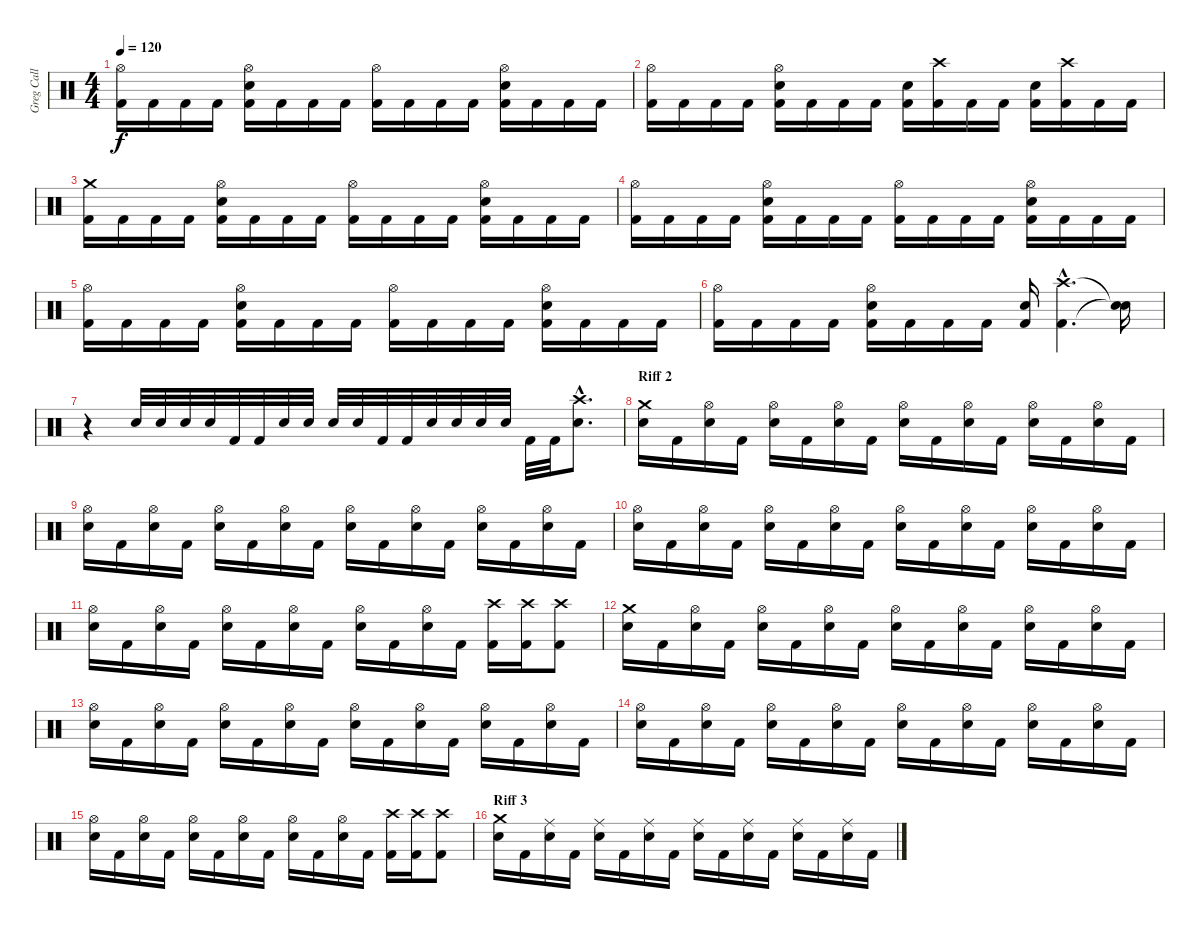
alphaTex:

\track ("Greg Call (Drums)" "Greg Call ") {instrument percussion}
\staff {score}
\articulation defaults
\ts (4 4)
\tempo 120
\clef neutral
\ks c
("Hi-Hat (open)" "Kick (hit) 2").16{dy f} "Kick (hit) 2".16 "Kick (hit) 2".16 "Kick (hit) 2".16 ("Hi-Hat (open)" "Snare (hit) 2" "Kick (hit) 2").16 "Kick (hit) 2".16 "Kick (hit) 2".16 "Kick (hit) 2".16 ("Hi-Hat (open)" "Kick (hit) 2").16 "Kick (hit) 2".16 "Kick (hit) 2".16 "Kick (hit) 2".16 ("Hi-Hat (open)" "Snare (hit) 2" "Kick (hit) 2").16 "Kick (hit) 2".16 "Kick (hit) 2".16 "Kick (hit) 2".16 |
("Hi-Hat (open)" "Kick (hit) 2").16 "Kick (hit) 2".16 "Kick (hit) 2".16 "Kick (hit) 2".16 ("Hi-Hat (open)" "Snare (hit) 2" "Kick (hit) 2").16 "Kick (hit) 2".16 "Kick (hit) 2".16 "Kick (hit) 2".16 ("Snare (hit) 2" "Kick (hit) 2").16 ("Crash high (hit)" "Kick (hit) 2").16 "Kick (hit) 2".16 "Kick (hit) 2".16 ("Snare (hit) 2" "Kick (hit) 2").16 ("Crash high (hit)" "Kick (hit) 2").16 "Kick (hit) 2".16 "Kick (hit) 2".16 |
("Crash medium (hit)" "Kick (hit) 2").16 "Kick (hit) 2".16 "Kick (hit) 2".16 "Kick (hit) 2".16 ("Hi-Hat (open)" "Snare (hit) 2" "Kick (hit) 2").16 "Kick (hit) 2".16 "Kick (hit) 2".16 "Kick (hit) 2".16 ("Hi-Hat (open)" "Kick (hit) 2").16 "Kick (hit) 2".16 "Kick (hit) 2".16 "Kick (hit) 2".16 ("Hi-Hat (open)" "Snare (hit) 2" "Kick (hit) 2").16 "Kick (hit) 2".16 "Kick (hit) 2".16 "Kick (hit) 2".16 |
("Hi-Hat (open)" "Kick (hit) 2").16 "Kick (hit) 2".16 "Kick (hit) 2".16 "Kick (hit) 2".16 ("Hi-Hat (open)" "Snare (hit) 2" "Kick (hit) 2").16 "Kick (hit) 2".16 "Kick (hit) 2".16 "Kick (hit) 2".16 ("Hi-Hat (open)" "Kick (hit) 2").16 "Kick (hit) 2".16 "Kick (hit) 2".16 "Kick (hit) 2".16 ("Hi-Hat (open)" "Snare (hit) 2" "Kick (hit) 2").16 "Kick (hit) 2".16 "Kick (hit) 2".16 "Kick (hit) 2".16 |
("Hi-Hat (open)" "Kick (hit) 2").16 "Kick (hit) 2".16 "Kick (hit) 2".16 "Kick (hit) 2".16 ("Hi-Hat (open)" "Snare (hit) 2" "Kick (hit) 2").16 "Kick (hit) 2".16 "Kick (hit) 2".16 "Kick (hit) 2".16 ("Hi-Hat (open)" "Kick (hit) 2").16 "Kick (hit) 2".16 "Kick (hit) 2".16 "Kick (hit) 2".16 ("Hi-Hat (open)" "Snare (hit) 2" "Kick (hit) 2").16 "Kick (hit) 2".16 "Kick (hit) 2".16 "Kick (hit) 2".16 |
("Hi-Hat (open)" "Kick (hit) 2").16 "Kick (hit) 2".16 "Kick (hit) 2".16 "Kick (hit) 2".16 ("Hi-Hat (open)" "Snare (hit) 2" "Kick (hit) 2").16 "Kick (hit) 2".16 "Kick (hit) 2".16 "Kick (hit) 2".16 ("Snare (hit) 2" "Kick (hit) 2").16 ("Crash high (hit)"{hac} "Kick (hit) 2"{hac}).4{d} ("Snare (hit)"{t} "Snare (hit)"{t}).16 |
r.4 "Snare (hit) 2".32 "Snare (hit) 2".32 "Snare (hit) 2".32 "Snare (hit) 2".32 "Kick (hit) 2".32 "Kick (hit) 2".32 "Snare (hit) 2".32 "Snare (hit) 2".32 "Snare (hit) 2".32 "Snare (hit) 2".32 "Kick (hit) 2".32 "Kick (hit) 2".32 "Snare (hit) 2".32 "Snare (hit) 2".32 "Snare (hit) 2".32 "Snare (hit) 2".32 "Kick (hit) 2".32 "Kick (hit) 2".32 ("Crash high (hit)"{hac} "Snare (hit) 2"{hac}).8{d} |
\section ("" "Riff 2")
("Crash medium (hit)" "Snare (hit) 2").16 "Kick (hit) 2".16 ("Hi-Hat (open)" "Snare (hit) 2").16 "Kick (hit) 2".16 ("Hi-Hat (open)" "Snare (hit) 2").16 "Kick (hit) 2".16 ("Hi-Hat (open)" "Snare (hit) 2").16 "Kick (hit) 2".16 ("Hi-Hat (open)" "Snare (hit) 2").16 "Kick (hit) 2".16 ("Hi-Hat (open)" "Snare (hit) 2").16 "Kick (hit) 2".16 ("Hi-Hat (open)" "Snare (hit) 2").16 "Kick (hit) 2".16 ("Hi-Hat (open)" "Snare (hit) 2").16 "Kick (hit) 2".16 |
("Hi-Hat (open)" "Snare (hit) 2").16 "Kick (hit) 2".16 ("Hi-Hat (open)" "Snare (hit) 2").16 "Kick (hit) 2".16 ("Hi-Hat (open)" "Snare (hit) 2").16 "Kick (hit) 2".16 ("Hi-Hat (open)" "Snare (hit) 2").16 "Kick (hit) 2".16 ("Hi-Hat (open)" "Snare (hit) 2").16 "Kick (hit) 2".16 ("Hi-Hat (open)" "Snare (hit) 2").16 "Kick (hit) 2".16 ("Hi-Hat (open)" "Snare (hit) 2").16 "Kick (hit) 2".16 ("Hi-Hat (open)" "Snare (hit) 2").16 "Kick (hit) 2".16 |
("Hi-Hat (open)" "Snare (hit) 2").16 "Kick (hit) 2".16 ("Hi-Hat (open)" "Snare (hit) 2").16 "Kick (hit) 2".16 ("Hi-Hat (open)" "Snare (hit) 2").16 "Kick (hit) 2".16 ("Hi-Hat (open)" "Snare (hit) 2").16 "Kick (hit) 2".16 ("Hi-Hat (open)" "Snare (hit) 2").16 "Kick (hit) 2".16 ("Hi-Hat (open)" "Snare (hit) 2").16 "Kick (hit) 2".16 ("Hi-Hat (open)" "Snare (hit) 2").16 "Kick (hit) 2".16 ("Hi-Hat (open)" "Snare (hit) 2").16 "Kick (hit) 2".16 |
("Hi-Hat (open)" "Snare (hit) 2").16 "Kick (hit) 2".16 ("Hi-Hat (open)" "Snare (hit) 2").16 "Kick (hit) 2".16 ("Hi-Hat (open)" "Snare (hit) 2").16 "Kick (hit) 2".16 ("Hi-Hat (open)" "Snare (hit) 2").16 "Kick (hit) 2".16 ("Hi-Hat (open)" "Snare (hit) 2").16 "Kick (hit) 2".16 ("Snare (hit) 2" "Hi-Hat (open)").16 "Kick (hit) 2".16 ("Crash high (hit)" "Kick (hit) 2").16 ("Crash high (hit)" "Kick (hit) 2").16 ("Crash high (hit)" "Kick (hit) 2").8 |
("Crash medium (hit)" "Snare (hit) 2").16 "Kick (hit) 2".16 ("Hi-Hat (open)" "Snare (hit) 2").16 "Kick (hit) 2".16 ("Hi-Hat (open)" "Snare (hit) 2").16 "Kick (hit) 2".16 ("Hi-Hat (open)" "Snare (hit) 2").16 "Kick (hit) 2".16 ("Hi-Hat (open)" "Snare (hit) 2").16 "Kick (hit) 2".16 ("Hi-Hat (open)" "Snare (hit) 2").16 "Kick (hit) 2".16 ("Hi-Hat (open)" "Snare (hit) 2").16 "Kick (hit) 2".16 ("Hi-Hat (open)" "Snare (hit) 2").16 "Kick (hit) 2".16 |
("Hi-Hat (open)" "Snare (hit) 2").16 "Kick (hit) 2".16 ("Hi-Hat (open)" "Snare (hit) 2").16 "Kick (hit) 2".16 ("Hi-Hat (open)" "Snare (hit) 2").16 "Kick (hit) 2".16 ("Hi-Hat (open)" "Snare (hit) 2").16 "Kick (hit) 2".16 ("Hi-Hat (open)" "Snare (hit) 2").16 "Kick (hit) 2".16 ("Hi-Hat (open)" "Snare (hit) 2").16 "Kick (hit) 2".16 ("Hi-Hat (open)" "Snare (hit) 2").16 "Kick (hit) 2".16 ("Hi-Hat (open)" "Snare (hit) 2").16 "Kick (hit) 2".16 |
("Hi-Hat (open)" "Snare (hit) 2").16 "Kick (hit) 2".16 ("Hi-Hat (open)" "Snare (hit) 2").16 "Kick (hit) 2".16 ("Hi-Hat (open)" "Snare (hit) 2").16 "Kick (hit) 2".16 ("Hi-Hat (open)" "Snare (hit) 2").16 "Kick (hit) 2".16 ("Hi-Hat (open)" "Snare (hit) 2").16 "Kick (hit) 2".16 ("Hi-Hat (open)" "Snare (hit) 2").16 "Kick (hit) 2".16 ("Hi-Hat (open)" "Snare (hit) 2").16 "Kick (hit) 2".16 ("Hi-Hat (open)" "Snare (hit) 2").16 "Kick (hit) 2".16 |
("Hi-Hat (open)" "Snare (hit) 2").16 "Kick (hit) 2".16 ("Hi-Hat (open)" "Snare (hit) 2").16 "Kick (hit) 2".16 ("Hi-Hat (open)" "Snare (hit) 2").16 "Kick (hit) 2".16 ("Hi-Hat (open)" "Snare (hit) 2").16 "Kick (hit) 2".16 ("Hi-Hat (open)" "Snare (hit) 2").16 "Kick (hit) 2".16 ("Snare (hit) 2" "Hi-Hat (open)").16 "Kick (hit) 2".16 ("Crash high (hit)" "Kick (hit) 2").16 ("Crash high (hit)" "Kick (hit) 2").16 ("Crash high (hit)" "Kick (hit) 2").8 |
\section ("" "Riff 3")
("Crash medium (hit)" "Snare (hit) 2").16 "Kick (hit) 2".16 ("Ride (middle)" "Snare (hit) 2").16 "Kick (hit) 2".16 ("Ride (middle)" "Snare (hit) 2").16 "Kick (hit) 2".16 ("Ride (middle)" "Snare (hit) 2").16 "Kick (hit) 2".16 ("Ride (middle)" "Snare (hit) 2").16 "Kick (hit) 2".16 ("Ride (middle)" "Snare (hit) 2").16 "Kick (hit) 2".16 ("Ride (middle)" "Snare (hit) 2").16 "Kick (hit) 2".16 ("Ride (middle)" "Snare (hit) 2").16 "Kick (hit) 2".16
